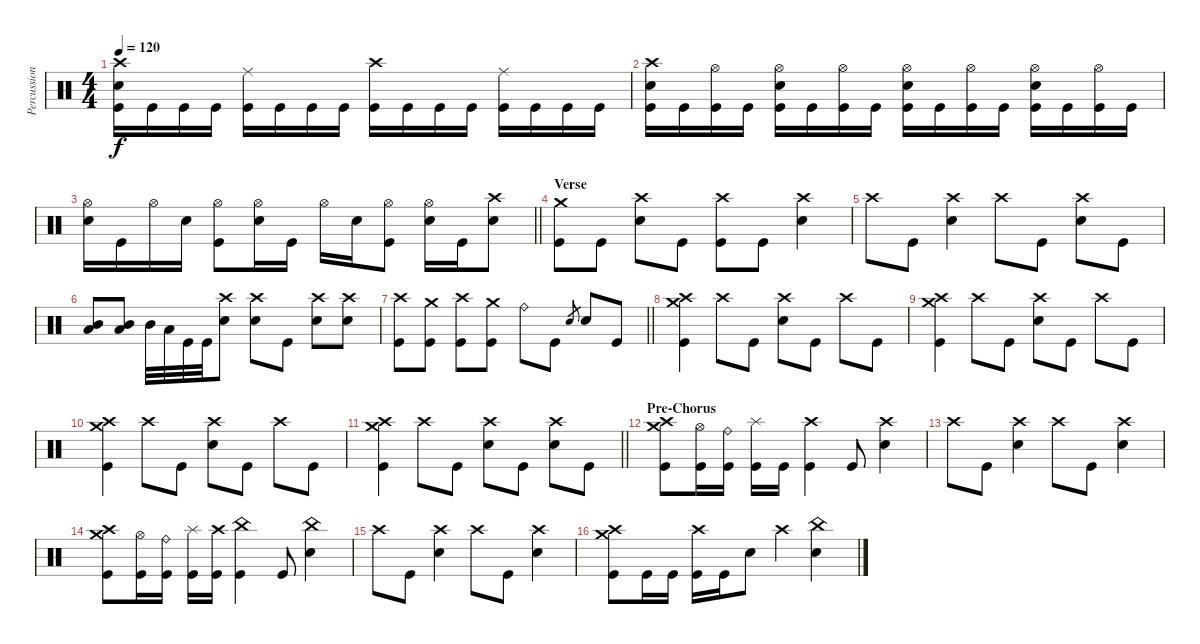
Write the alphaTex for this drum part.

\track ("Percussion" "Percussion") {instrument percussion}
\staff {score}
\articulation defaults
\ts (4 4)
\tempo 120
\clef neutral
\ks c
("Kick (hit)" "Snare (hit) 2" "Crash high (hit)").16{dy f} "Kick (hit)".16 "Kick (hit)".16 "Kick (hit)".16 ("Kick (hit)" "Ride (middle)").16 "Kick (hit)".16 "Kick (hit)".16 "Kick (hit)".16 ("Kick (hit)" "Crash high (hit)").16 "Kick (hit)".16 "Kick (hit)".16 "Kick (hit)".16 ("Kick (hit)" "Ride (middle)").16 "Kick (hit)".16 "Kick (hit)".16 "Kick (hit)".16 |
("Snare (hit) 2" "Crash high (hit)" "Kick (hit)").16 "Kick (hit)".16 ("Kick (hit)" "Hi-Hat (open)").16 "Kick (hit)".16 ("Kick (hit)" "Hi-Hat (open)" "Snare (hit) 2").16 "Kick (hit)".16 ("Kick (hit)" "Hi-Hat (open)").16 "Kick (hit)".16 ("Kick (hit)" "Hi-Hat (open)" "Snare (hit) 2").16 "Kick (hit)".16 ("Kick (hit)" "Hi-Hat (open)").16 "Kick (hit)".16 ("Kick (hit)" "Hi-Hat (open)" "Snare (hit) 2").16 "Kick (hit)".16 ("Kick (hit)" "Hi-Hat (open)").16 "Kick (hit)".16 |
\barLineRight lightlight
("Snare (hit) 2" "Hi-Hat (open)").16 "Kick (hit)".16 "Hi-Hat (open)".16 "Snare (hit) 2".16 ("Kick (hit)" "Hi-Hat (open)").8 ("Snare (hit) 2" "Hi-Hat (open)").16 "Kick (hit)".16 "Hi-Hat (open)".16 "Snare (hit) 2".16 ("Kick (hit)" "Hi-Hat (open)").8 ("Hi-Hat (open)" "Snare (hit) 2").16 "Kick (hit)".16 ("Snare (hit) 2" "Crash high (hit)").8 |
\section ("" "Verse")
("Crash medium (hit)" "Kick (hit)").8 "Kick (hit)".8 ("Crash high (hit)" "Snare (hit) 2").8 "Kick (hit)".8 ("Kick (hit)" "Crash high (hit)").8 "Kick (hit)".8 ("Snare (hit) 2" "Crash high (hit)").4 |
"Crash high (hit)".8 "Kick (hit)".8 ("Snare (hit) 2" "Crash high (hit)").4 "Crash high (hit)".8 "Kick (hit)".8 ("Snare (hit) 2" "Crash high (hit)").8 "Kick (hit)".8 |
("Mid Tom (hit)" "Low Tom (hit)").8 ("Low Tom (hit)" "Mid Tom (hit)").8 "Mid Tom (hit)".32 "Low Tom (hit)".32 "Kick (hit)".32 "Kick (hit)".32 ("Snare (hit) 2" "Crash high (hit)").8 ("Snare (hit) 2" "Crash high (hit)").8 "Kick (hit)".8 ("Snare (hit) 2" "Crash high (hit)").8 ("Snare (hit) 2" "Crash high (hit)").8 |
\barLineRight lightlight
("Kick (hit)" "Crash high (hit)").8 ("Kick (hit)" "Crash medium (hit)").8 ("Kick (hit)" "Crash high (hit)").8 ("Kick (hit)" "Crash medium (hit)").8 "Ride (bell)".8 "Kick (hit)".8 "Snare (hit) 2".8{gr} "Snare (hit) 2".8 "Kick (hit)".8 |
("Kick (hit)" "Crash high (hit)" "Crash medium (hit)").4 "Crash high (hit)".8 "Kick (hit)".8 ("Snare (hit) 2" "Crash high (hit)").8 "Kick (hit)".8 "Crash high (hit)".8 "Kick (hit)".8 |
("Kick (hit)" "Crash high (hit)" "Crash medium (hit)").4 "Crash high (hit)".8 "Kick (hit)".8 ("Snare (hit) 2" "Crash high (hit)").8 "Kick (hit)".8 "Crash high (hit)".8 "Kick (hit)".8 |
("Kick (hit)" "Crash high (hit)" "Crash medium (hit)").4 "Crash high (hit)".8 "Kick (hit)".8 ("Snare (hit) 2" "Crash high (hit)").8 "Kick (hit)".8 "Crash high (hit)".8 "Kick (hit)".8 |
\barLineRight lightlight
("Kick (hit)" "Crash high (hit)" "Crash medium (hit)").4 "Crash high (hit)".8 "Kick (hit)".8 ("Snare (hit) 2" "Crash high (hit)").8 "Kick (hit)".8 ("Crash high (hit)" "Snare (hit) 2").8 "Kick (hit)".8 |
\section ("" "Pre-Chorus")
("Kick (hit)" "Crash high (hit)" "Crash medium (hit)").8 ("Kick (hit)" "Hi-Hat (open)").16 ("Kick (hit)" "Ride (bell)").16 ("Kick (hit)" "Splash (hit)").16 "Kick (hit)".16 ("Kick (hit)" "Crash high (hit)").4 "Kick (hit)".8 ("Snare (hit) 2" "Crash high (hit)").4 |
"Crash high (hit)".8 "Kick (hit)".8 ("Snare (hit) 2" "Crash high (hit)").4 "Crash high (hit)".8 "Kick (hit)".8 ("Snare (hit) 2" "Crash high (hit)").4 |
("Kick (hit)" "Crash high (hit)" "Crash medium (hit)").8 ("Kick (hit)" "Hi-Hat (open)").16 ("Kick (hit)" "Ride (bell)").16 ("Kick (hit)" "Splash (hit)").16 ("Kick (hit)" "Crash high (hit)").16 ("Kick (hit)" "China (hit)").4 "Kick (hit)".8 ("Snare (hit) 2" "China (hit)").4 |
"Crash high (hit)".8 "Kick (hit)".8 ("Snare (hit) 2" "Crash high (hit)").4 "Crash high (hit)".8 "Kick (hit)".8 ("Snare (hit) 2" "Crash high (hit)").4 |
("Kick (hit)" "Crash high (hit)" "Crash medium (hit)").8 "Kick (hit)".16 "Kick (hit)".16 ("Kick (hit)" "Crash high (hit)").16 "Kick (hit)".16 "Snare (hit) 2".8 "Crash high (hit)".4 ("Snare (hit) 2" "China (hit)").4
